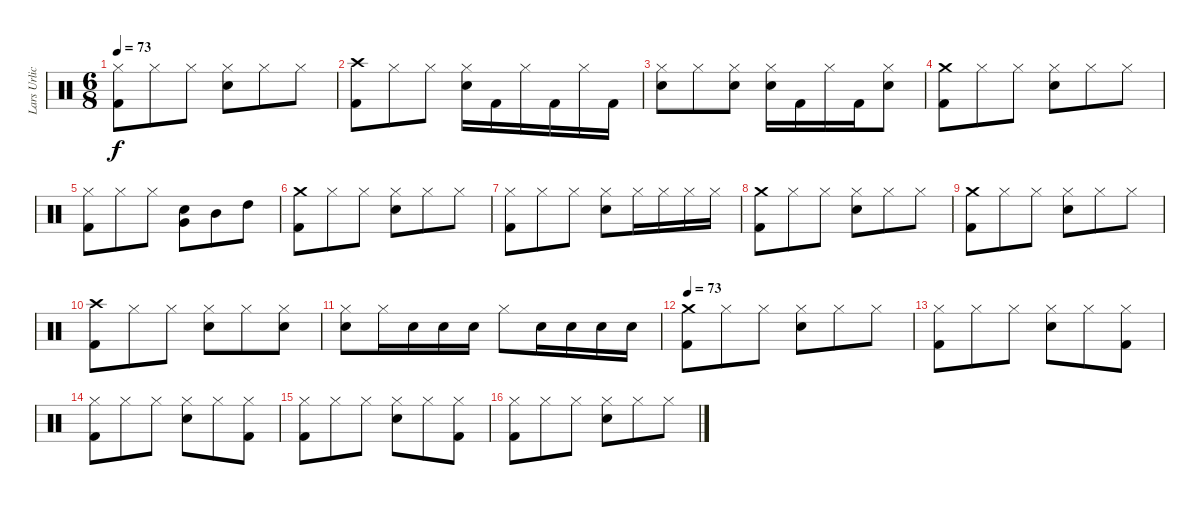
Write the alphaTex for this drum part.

\track ("Lars Urlich" "Lars Urlic") {instrument percussion}
\staff {score}
\articulation defaults
\ts (6 8)
\tempo 73
\clef neutral
\ks c
("Hi-Hat (closed)" "Kick (hit) 2").8{dy f} "Hi-Hat (closed)".8 "Hi-Hat (closed)".8 ("Hi-Hat (closed)" "Snare (hit) 2").8 "Hi-Hat (closed)".8 "Hi-Hat (closed)".8 |
("Crash high (hit)" "Kick (hit) 2").8 "Hi-Hat (closed)".8 "Hi-Hat (closed)".8 ("Hi-Hat (closed)" "Snare (hit) 2").16 "Kick (hit) 2".16 "Hi-Hat (closed)".16 "Kick (hit) 2".16 "Hi-Hat (closed)".16 "Kick (hit) 2".16 |
("Hi-Hat (closed)" "Snare (hit) 2").8 "Hi-Hat (closed)".8 ("Hi-Hat (closed)" "Snare (hit) 2").8 ("Hi-Hat (closed)" "Snare (hit) 2").16 "Kick (hit) 2".16 "Hi-Hat (closed)".16 "Kick (hit) 2".16 ("Hi-Hat (closed)" "Snare (hit) 2").8 |
("Crash medium (hit)" "Kick (hit) 2").8 "Hi-Hat (closed)".8 "Hi-Hat (closed)".8 ("Hi-Hat (closed)" "Snare (hit) 2").8 "Hi-Hat (closed)".8 "Hi-Hat (closed)".8 |
("Hi-Hat (closed)" "Kick (hit) 2").8 "Hi-Hat (closed)".8 "Hi-Hat (closed)".8 ("Snare (hit) 2" "Very Low Tom (hit)").8 "Mid Tom (hit)".8 "High Tom (hit)".8 |
("Crash medium (hit)" "Kick (hit) 2").8 "Hi-Hat (closed)".8 "Hi-Hat (closed)".8 ("Hi-Hat (closed)" "Snare (hit) 2").8 "Hi-Hat (closed)".8 "Hi-Hat (closed)".8 |
("Hi-Hat (closed)" "Kick (hit) 2").8 "Hi-Hat (closed)".8 "Hi-Hat (closed)".8 ("Hi-Hat (closed)" "Snare (hit) 2").8 "Hi-Hat (closed)".16 "Hi-Hat (closed)".16 "Hi-Hat (closed)".16 "Hi-Hat (closed)".16 |
("Crash medium (hit)" "Kick (hit) 2").8 "Hi-Hat (closed)".8 "Hi-Hat (closed)".8 ("Hi-Hat (closed)" "Snare (hit) 2").8 "Hi-Hat (closed)".8 "Hi-Hat (closed)".8 |
("Crash medium (hit)" "Kick (hit) 2").8 "Hi-Hat (closed)".8 "Hi-Hat (closed)".8 ("Hi-Hat (closed)" "Snare (hit) 2").8 "Hi-Hat (closed)".8 "Hi-Hat (closed)".8 |
("Crash high (hit)" "Kick (hit) 2").8 "Hi-Hat (closed)".8 "Hi-Hat (closed)".8 ("Hi-Hat (closed)" "Snare (hit) 2").8 "Hi-Hat (closed)".8 ("Hi-Hat (closed)" "Snare (hit) 2").8 |
("Hi-Hat (closed)" "Snare (hit) 2").8 "Hi-Hat (closed)".16 "Snare (hit) 2".16 "Snare (hit) 2".16 "Snare (hit) 2".16 "Hi-Hat (closed)".8 "Snare (hit) 2".16 "Snare (hit) 2".16 "Snare (hit) 2".16 "Snare (hit) 2".16 |
\tempo 73
("Crash medium (hit)" "Kick (hit) 2").8 "Hi-Hat (closed)".8 "Hi-Hat (closed)".8 ("Hi-Hat (closed)" "Snare (hit) 2").8 "Hi-Hat (closed)".8 "Hi-Hat (closed)".8 |
("Hi-Hat (closed)" "Kick (hit) 2").8 "Hi-Hat (closed)".8 "Hi-Hat (closed)".8 ("Hi-Hat (closed)" "Snare (hit) 2").8 "Hi-Hat (closed)".8 ("Hi-Hat (closed)" "Kick (hit) 2").8 |
("Hi-Hat (closed)" "Kick (hit) 2").8 "Hi-Hat (closed)".8 "Hi-Hat (closed)".8 ("Hi-Hat (closed)" "Snare (hit) 2").8 "Hi-Hat (closed)".8 ("Hi-Hat (closed)" "Kick (hit) 2").8 |
("Hi-Hat (closed)" "Kick (hit) 2").8 "Hi-Hat (closed)".8 "Hi-Hat (closed)".8 ("Hi-Hat (closed)" "Snare (hit) 2").8 "Hi-Hat (closed)".8 ("Hi-Hat (closed)" "Kick (hit) 2").8 |
("Hi-Hat (closed)" "Kick (hit) 2").8 "Hi-Hat (closed)".8 "Hi-Hat (closed)".8 ("Hi-Hat (closed)" "Snare (hit) 2").8 "Hi-Hat (closed)".8 "Hi-Hat (closed)".8
